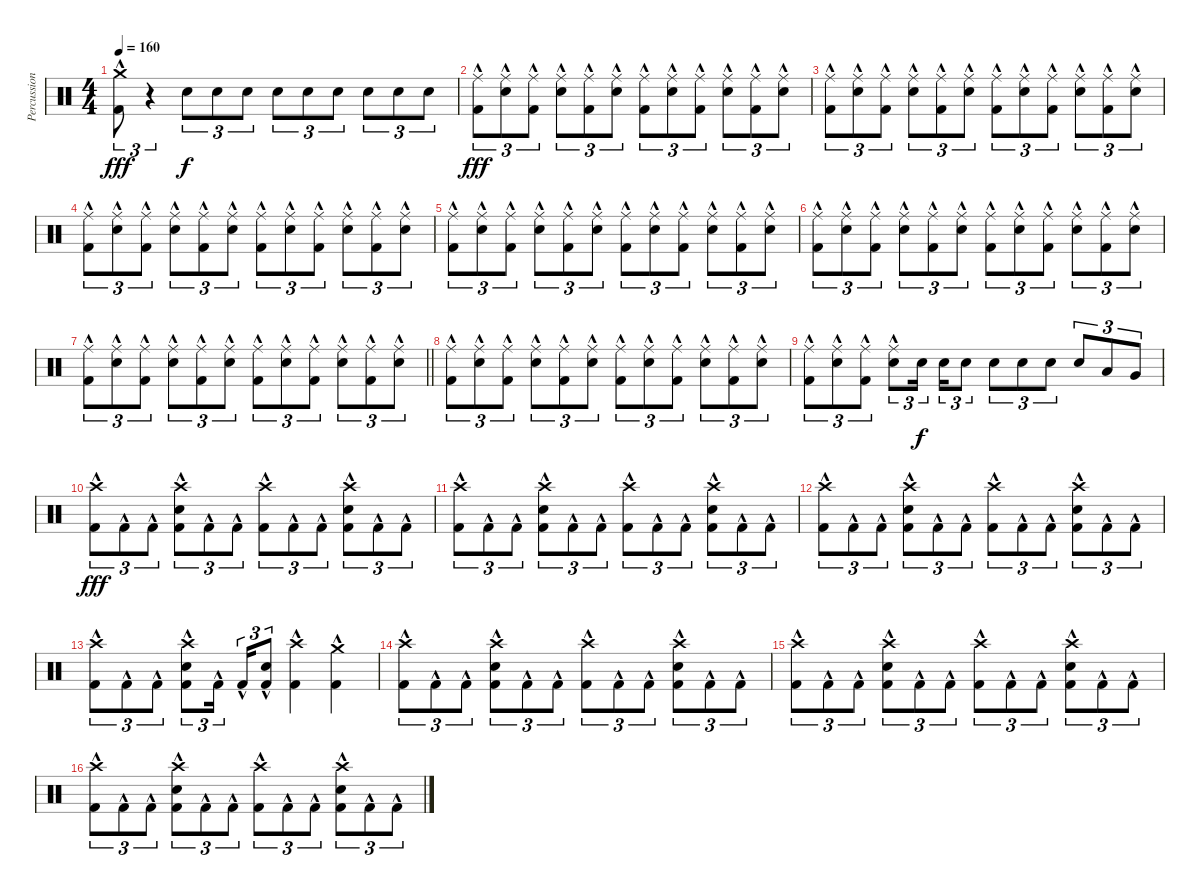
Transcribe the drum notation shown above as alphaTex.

\track ("Percussion" "Percussion") {instrument percussion}
\staff {score}
\articulation defaults
\ts (4 4)
\tempo 160
\clef neutral
\ks c
("Crash medium (hit)" "Kick (hit) 2"{hac}).8{tu (3 2) dy fff volume 16} r.4{tu (3 2)} "Electric Snare (hit)".8{tu (3 2) dy f} "Electric Snare (hit)".8{tu (3 2)} "Electric Snare (hit)".8{tu (3 2)} "Electric Snare (hit)".8{tu (3 2)} "Electric Snare (hit)".8{tu (3 2)} "Electric Snare (hit)".8{tu (3 2)} "Electric Snare (hit)".8{tu (3 2)} "Electric Snare (hit)".8{tu (3 2)} "Electric Snare (hit)".8{tu (3 2)} |
("Ride (middle)" "Kick (hit) 2"{hac}).8{tu (3 2) dy fff} ("Ride (middle)" "Electric Snare (hit)"{hac}).8{tu (3 2)} ("Ride (middle)" "Kick (hit) 2"{hac}).8{tu (3 2)} ("Ride (middle)" "Electric Snare (hit)"{hac}).8{tu (3 2)} ("Ride (middle)" "Kick (hit) 2"{hac}).8{tu (3 2)} ("Ride (middle)" "Electric Snare (hit)"{hac}).8{tu (3 2)} ("Ride (middle)" "Kick (hit) 2"{hac}).8{tu (3 2)} ("Ride (middle)" "Electric Snare (hit)"{hac}).8{tu (3 2)} ("Ride (middle)" "Kick (hit) 2"{hac}).8{tu (3 2)} ("Ride (middle)" "Electric Snare (hit)"{hac}).8{tu (3 2)} ("Ride (middle)" "Kick (hit) 2"{hac}).8{tu (3 2)} ("Ride (middle)" "Electric Snare (hit)"{hac}).8{tu (3 2)} |
("Ride (middle)" "Kick (hit) 2"{hac}).8{tu (3 2)} ("Ride (middle)" "Electric Snare (hit)"{hac}).8{tu (3 2)} ("Ride (middle)" "Kick (hit) 2"{hac}).8{tu (3 2)} ("Ride (middle)" "Electric Snare (hit)"{hac}).8{tu (3 2)} ("Ride (middle)" "Kick (hit) 2"{hac}).8{tu (3 2)} ("Ride (middle)" "Electric Snare (hit)"{hac}).8{tu (3 2)} ("Ride (middle)" "Kick (hit) 2"{hac}).8{tu (3 2)} ("Ride (middle)" "Electric Snare (hit)"{hac}).8{tu (3 2)} ("Ride (middle)" "Kick (hit) 2"{hac}).8{tu (3 2)} ("Ride (middle)" "Electric Snare (hit)"{hac}).8{tu (3 2)} ("Ride (middle)" "Kick (hit) 2"{hac}).8{tu (3 2)} ("Ride (middle)" "Electric Snare (hit)"{hac}).8{tu (3 2)} |
("Ride (middle)" "Kick (hit) 2"{hac}).8{tu (3 2)} ("Ride (middle)" "Electric Snare (hit)"{hac}).8{tu (3 2)} ("Ride (middle)" "Kick (hit) 2"{hac}).8{tu (3 2)} ("Ride (middle)" "Electric Snare (hit)"{hac}).8{tu (3 2)} ("Ride (middle)" "Kick (hit) 2"{hac}).8{tu (3 2)} ("Ride (middle)" "Electric Snare (hit)"{hac}).8{tu (3 2)} ("Ride (middle)" "Kick (hit) 2"{hac}).8{tu (3 2)} ("Ride (middle)" "Electric Snare (hit)"{hac}).8{tu (3 2)} ("Ride (middle)" "Kick (hit) 2"{hac}).8{tu (3 2)} ("Ride (middle)" "Electric Snare (hit)"{hac}).8{tu (3 2)} ("Ride (middle)" "Kick (hit) 2"{hac}).8{tu (3 2)} ("Ride (middle)" "Electric Snare (hit)"{hac}).8{tu (3 2)} |
("Ride (middle)" "Kick (hit) 2"{hac}).8{tu (3 2)} ("Ride (middle)" "Electric Snare (hit)"{hac}).8{tu (3 2)} ("Ride (middle)" "Kick (hit) 2"{hac}).8{tu (3 2)} ("Ride (middle)" "Electric Snare (hit)"{hac}).8{tu (3 2)} ("Ride (middle)" "Kick (hit) 2"{hac}).8{tu (3 2)} ("Ride (middle)" "Electric Snare (hit)"{hac}).8{tu (3 2)} ("Ride (middle)" "Kick (hit) 2"{hac}).8{tu (3 2)} ("Ride (middle)" "Electric Snare (hit)"{hac}).8{tu (3 2)} ("Ride (middle)" "Kick (hit) 2"{hac}).8{tu (3 2)} ("Ride (middle)" "Electric Snare (hit)"{hac}).8{tu (3 2)} ("Ride (middle)" "Kick (hit) 2"{hac}).8{tu (3 2)} ("Ride (middle)" "Electric Snare (hit)"{hac}).8{tu (3 2)} |
("Ride (middle)" "Kick (hit) 2"{hac}).8{tu (3 2)} ("Ride (middle)" "Electric Snare (hit)"{hac}).8{tu (3 2)} ("Ride (middle)" "Kick (hit) 2"{hac}).8{tu (3 2)} ("Ride (middle)" "Electric Snare (hit)"{hac}).8{tu (3 2)} ("Ride (middle)" "Kick (hit) 2"{hac}).8{tu (3 2)} ("Ride (middle)" "Electric Snare (hit)"{hac}).8{tu (3 2)} ("Ride (middle)" "Kick (hit) 2"{hac}).8{tu (3 2)} ("Ride (middle)" "Electric Snare (hit)"{hac}).8{tu (3 2)} ("Ride (middle)" "Kick (hit) 2"{hac}).8{tu (3 2)} ("Ride (middle)" "Electric Snare (hit)"{hac}).8{tu (3 2)} ("Ride (middle)" "Kick (hit) 2"{hac}).8{tu (3 2)} ("Ride (middle)" "Electric Snare (hit)"{hac}).8{tu (3 2)} |
\barLineRight lightlight
("Ride (middle)" "Kick (hit) 2"{hac}).8{tu (3 2)} ("Ride (middle)" "Electric Snare (hit)"{hac}).8{tu (3 2)} ("Ride (middle)" "Kick (hit) 2"{hac}).8{tu (3 2)} ("Ride (middle)" "Electric Snare (hit)"{hac}).8{tu (3 2)} ("Ride (middle)" "Kick (hit) 2"{hac}).8{tu (3 2)} ("Ride (middle)" "Electric Snare (hit)"{hac}).8{tu (3 2)} ("Ride (middle)" "Kick (hit) 2"{hac}).8{tu (3 2)} ("Ride (middle)" "Electric Snare (hit)"{hac}).8{tu (3 2)} ("Ride (middle)" "Kick (hit) 2"{hac}).8{tu (3 2)} ("Ride (middle)" "Electric Snare (hit)"{hac}).8{tu (3 2)} ("Ride (middle)" "Kick (hit) 2"{hac}).8{tu (3 2)} ("Ride (middle)" "Electric Snare (hit)"{hac}).8{tu (3 2)} |
("Ride (middle)" "Kick (hit) 2"{hac}).8{tu (3 2)} ("Ride (middle)" "Electric Snare (hit)"{hac}).8{tu (3 2)} ("Ride (middle)" "Kick (hit) 2"{hac}).8{tu (3 2)} ("Ride (middle)" "Electric Snare (hit)"{hac}).8{tu (3 2)} ("Ride (middle)" "Kick (hit) 2"{hac}).8{tu (3 2)} ("Ride (middle)" "Electric Snare (hit)"{hac}).8{tu (3 2)} ("Ride (middle)" "Kick (hit) 2"{hac}).8{tu (3 2)} ("Ride (middle)" "Electric Snare (hit)"{hac}).8{tu (3 2)} ("Ride (middle)" "Kick (hit) 2"{hac}).8{tu (3 2)} ("Ride (middle)" "Electric Snare (hit)"{hac}).8{tu (3 2)} ("Ride (middle)" "Kick (hit) 2"{hac}).8{tu (3 2)} ("Ride (middle)" "Electric Snare (hit)"{hac}).8{tu (3 2)} |
("Ride (middle)" "Kick (hit) 2"{hac}).8{tu (3 2)} ("Ride (middle)" "Electric Snare (hit)"{hac}).8{tu (3 2)} ("Ride (middle)" "Kick (hit) 2"{hac}).8{tu (3 2)} ("Ride (middle)" "Electric Snare (hit)"{hac}).8{tu (3 2)} "Electric Snare (hit)".16{tu (3 2) dy f} "Electric Snare (hit)".16{tu (3 2)} "Electric Snare (hit)".8{tu (3 2)} "Electric Snare (hit)".8{tu (3 2)} "Electric Snare (hit)".8{tu (3 2)} "Electric Snare (hit)".8{tu (3 2)} "Electric Snare (hit)".8{tu (3 2)} "Low Tom (hit)".8{tu (3 2)} "Very Low Tom (hit)".8{tu (3 2)} |
("Crash high (hit)" "Kick (hit) 2"{hac}).8{tu (3 2) dy fff} "Kick (hit) 2"{hac}.8{tu (3 2)} "Kick (hit) 2"{hac}.8{tu (3 2)} ("Crash high (hit)" "Electric Snare (hit)"{hac} "Kick (hit) 2"{hac}).8{tu (3 2)} "Kick (hit) 2"{hac}.8{tu (3 2)} "Kick (hit) 2"{hac}.8{tu (3 2)} ("Crash high (hit)" "Kick (hit) 2"{hac}).8{tu (3 2)} "Kick (hit) 2"{hac}.8{tu (3 2)} "Kick (hit) 2"{hac}.8{tu (3 2)} ("Crash high (hit)" "Electric Snare (hit)"{hac} "Kick (hit) 2"{hac}).8{tu (3 2)} "Kick (hit) 2"{hac}.8{tu (3 2)} "Kick (hit) 2"{hac}.8{tu (3 2)} |
("Crash high (hit)" "Kick (hit) 2"{hac}).8{tu (3 2)} "Kick (hit) 2"{hac}.8{tu (3 2)} "Kick (hit) 2"{hac}.8{tu (3 2)} ("Crash high (hit)" "Electric Snare (hit)"{hac} "Kick (hit) 2"{hac}).8{tu (3 2)} "Kick (hit) 2"{hac}.8{tu (3 2)} "Kick (hit) 2"{hac}.8{tu (3 2)} ("Crash high (hit)" "Kick (hit) 2"{hac}).8{tu (3 2)} "Kick (hit) 2"{hac}.8{tu (3 2)} "Kick (hit) 2"{hac}.8{tu (3 2)} ("Crash high (hit)" "Electric Snare (hit)"{hac} "Kick (hit) 2"{hac}).8{tu (3 2)} "Kick (hit) 2"{hac}.8{tu (3 2)} "Kick (hit) 2"{hac}.8{tu (3 2)} |
("Crash high (hit)" "Kick (hit) 2"{hac}).8{tu (3 2)} "Kick (hit) 2"{hac}.8{tu (3 2)} "Kick (hit) 2"{hac}.8{tu (3 2)} ("Crash high (hit)" "Electric Snare (hit)"{hac} "Kick (hit) 2"{hac}).8{tu (3 2)} "Kick (hit) 2"{hac}.8{tu (3 2)} "Kick (hit) 2"{hac}.8{tu (3 2)} ("Crash high (hit)" "Kick (hit) 2"{hac}).8{tu (3 2)} "Kick (hit) 2"{hac}.8{tu (3 2)} "Kick (hit) 2"{hac}.8{tu (3 2)} ("Crash high (hit)" "Electric Snare (hit)"{hac} "Kick (hit) 2"{hac}).8{tu (3 2)} "Kick (hit) 2"{hac}.8{tu (3 2)} "Kick (hit) 2"{hac}.8{tu (3 2)} |
("Crash high (hit)" "Kick (hit) 2"{hac}).8{tu (3 2)} "Kick (hit) 2"{hac}.8{tu (3 2)} "Kick (hit) 2"{hac}.8{tu (3 2)} ("Crash high (hit)" "Electric Snare (hit)"{hac} "Kick (hit) 2"{hac}).8{tu (3 2)} "Kick (hit) 2"{hac}.16{tu (3 2)} "Kick (hit) 2"{hac}.16{tu (3 2)} ("Electric Snare (hit)"{hac} "Kick (hit) 2"{hac}).8{tu (3 2)} ("Crash high (hit)" "Kick (hit) 2"{hac}).4 ("Crash medium (hit)" "Kick (hit) 2"{hac}).4 |
("Crash high (hit)" "Kick (hit) 2"{hac}).8{tu (3 2)} "Kick (hit) 2"{hac}.8{tu (3 2)} "Kick (hit) 2"{hac}.8{tu (3 2)} ("Crash high (hit)" "Electric Snare (hit)"{hac} "Kick (hit) 2"{hac}).8{tu (3 2)} "Kick (hit) 2"{hac}.8{tu (3 2)} "Kick (hit) 2"{hac}.8{tu (3 2)} ("Crash high (hit)" "Kick (hit) 2"{hac}).8{tu (3 2)} "Kick (hit) 2"{hac}.8{tu (3 2)} "Kick (hit) 2"{hac}.8{tu (3 2)} ("Crash high (hit)" "Electric Snare (hit)"{hac} "Kick (hit) 2"{hac}).8{tu (3 2)} "Kick (hit) 2"{hac}.8{tu (3 2)} "Kick (hit) 2"{hac}.8{tu (3 2)} |
("Crash high (hit)" "Kick (hit) 2"{hac}).8{tu (3 2)} "Kick (hit) 2"{hac}.8{tu (3 2)} "Kick (hit) 2"{hac}.8{tu (3 2)} ("Crash high (hit)" "Electric Snare (hit)"{hac} "Kick (hit) 2"{hac}).8{tu (3 2)} "Kick (hit) 2"{hac}.8{tu (3 2)} "Kick (hit) 2"{hac}.8{tu (3 2)} ("Crash high (hit)" "Kick (hit) 2"{hac}).8{tu (3 2)} "Kick (hit) 2"{hac}.8{tu (3 2)} "Kick (hit) 2"{hac}.8{tu (3 2)} ("Crash high (hit)" "Electric Snare (hit)"{hac} "Kick (hit) 2"{hac}).8{tu (3 2)} "Kick (hit) 2"{hac}.8{tu (3 2)} "Kick (hit) 2"{hac}.8{tu (3 2)} |
("Crash high (hit)" "Kick (hit) 2"{hac}).8{tu (3 2)} "Kick (hit) 2"{hac}.8{tu (3 2)} "Kick (hit) 2"{hac}.8{tu (3 2)} ("Crash high (hit)" "Electric Snare (hit)"{hac} "Kick (hit) 2"{hac}).8{tu (3 2)} "Kick (hit) 2"{hac}.8{tu (3 2)} "Kick (hit) 2"{hac}.8{tu (3 2)} ("Crash high (hit)" "Kick (hit) 2"{hac}).8{tu (3 2)} "Kick (hit) 2"{hac}.8{tu (3 2)} "Kick (hit) 2"{hac}.8{tu (3 2)} ("Crash high (hit)" "Electric Snare (hit)"{hac} "Kick (hit) 2"{hac}).8{tu (3 2)} "Kick (hit) 2"{hac}.8{tu (3 2)} "Kick (hit) 2"{hac}.8{tu (3 2)}
